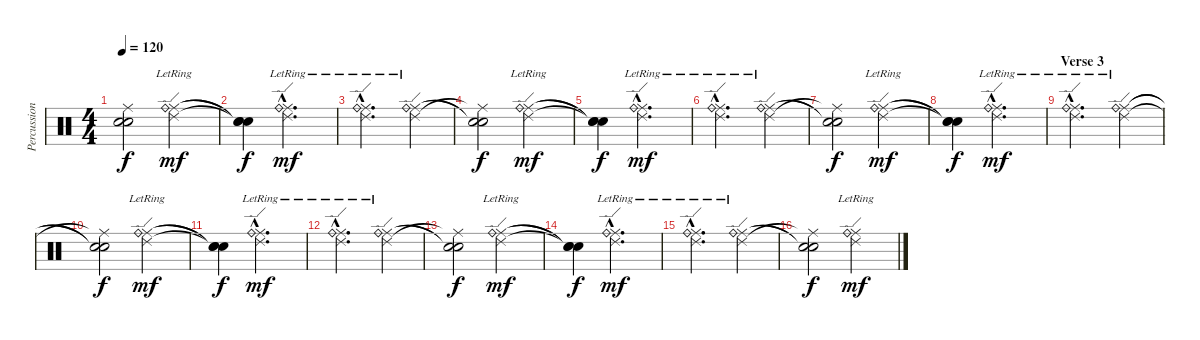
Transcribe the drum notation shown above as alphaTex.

\track ("Percussion" "Percussion") {instrument percussion}
\staff {score}
\articulation defaults
\ts (4 4)
\tempo 120
\clef neutral
\ks c
("Ride (middle)"{t} "Snare (hit)"{t} "Snare (hit)"{t}).2{dy f} ("Ride (edge) 2"{lr} "Ride (middle)" "Ride (bell)").2{dy mf} |
("Snare (hit)"{t} "Snare (hit)"{t} "Snare (hit)"{t}).4{dy f} ("Ride (edge) 2"{hac lr} "Ride (middle)"{hac} "Ride (bell)"{hac}).2{d dy mf} |
("Ride (edge) 2"{hac lr} "Ride (middle)"{hac} "Ride (bell)"{hac}).2{d} ("Ride (edge) 2"{lr} "Ride (middle)" "Ride (bell)").4 |
("Ride (middle)"{t} "Snare (hit)"{t} "Snare (hit)"{t}).2{dy f} ("Ride (edge) 2"{lr} "Ride (middle)" "Ride (bell)").2{dy mf} |
("Snare (hit)"{t} "Snare (hit)"{t} "Snare (hit)"{t}).4{dy f} ("Ride (edge) 2"{hac lr} "Ride (middle)"{hac} "Ride (bell)"{hac}).2{d dy mf} |
("Ride (edge) 2"{hac lr} "Ride (middle)"{hac} "Ride (bell)"{hac}).2{d} ("Ride (edge) 2"{lr} "Ride (middle)" "Ride (bell)").4 |
("Ride (middle)"{t} "Snare (hit)"{t} "Snare (hit)"{t}).2{dy f} ("Ride (edge) 2"{lr} "Ride (middle)" "Ride (bell)").2{dy mf} |
("Snare (hit)"{t} "Snare (hit)"{t} "Snare (hit)"{t}).4{dy f} ("Ride (edge) 2"{hac lr} "Ride (middle)"{hac} "Ride (bell)"{hac}).2{d dy mf} |
\section ("" "Verse 3")
("Ride (edge) 2"{hac lr} "Ride (middle)"{hac} "Ride (bell)"{hac}).2{d} ("Ride (edge) 2"{lr} "Ride (middle)" "Ride (bell)").4 |
("Ride (middle)"{t} "Snare (hit)"{t} "Snare (hit)"{t}).2{dy f} ("Ride (edge) 2"{lr} "Ride (middle)" "Ride (bell)").2{dy mf} |
("Snare (hit)"{t} "Snare (hit)"{t} "Snare (hit)"{t}).4{dy f} ("Ride (edge) 2"{hac lr} "Ride (middle)"{hac} "Ride (bell)"{hac}).2{d dy mf} |
("Ride (edge) 2"{hac lr} "Ride (middle)"{hac} "Ride (bell)"{hac}).2{d} ("Ride (edge) 2"{lr} "Ride (middle)" "Ride (bell)").4 |
("Ride (middle)"{t} "Snare (hit)"{t} "Snare (hit)"{t}).2{dy f} ("Ride (edge) 2"{lr} "Ride (middle)" "Ride (bell)").2{dy mf} |
("Snare (hit)"{t} "Snare (hit)"{t} "Snare (hit)"{t}).4{dy f} ("Ride (edge) 2"{hac lr} "Ride (middle)"{hac} "Ride (bell)"{hac}).2{d dy mf} |
("Ride (edge) 2"{hac lr} "Ride (middle)"{hac} "Ride (bell)"{hac}).2{d} ("Ride (edge) 2"{lr} "Ride (middle)" "Ride (bell)").4 |
("Ride (middle)"{t} "Snare (hit)"{t} "Snare (hit)"{t}).2{dy f} ("Ride (edge) 2"{lr} "Ride (middle)" "Ride (bell)").2{dy mf}
